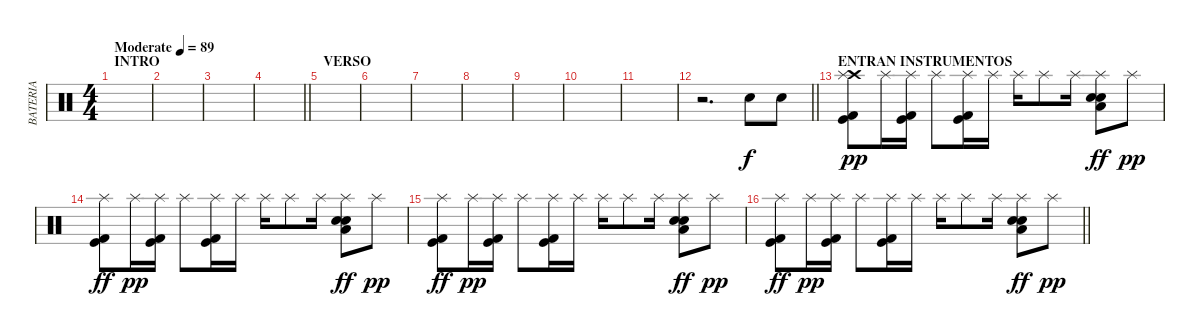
\track ("BATERIA" "BATERIA") {instrument percussion}
\staff {score}
\articulation defaults
\ts (4 4)
\section ("" "INTRO")
\tempo (89 "Moderate")
\clef neutral
\ks c
|
|
|
\barLineRight lightlight
|
\section ("" "VERSO")
|
|
|
|
|
|
|
\barLineRight lightlight
r.2{d} "Snare (hit) 2".8 "Snare (hit) 2".8 |
\section ("" "ENTRAN INSTRUMENTOS")
("Crash high (hit)" "Splash (hit)" "Kick (hit)" "Kick (hit) 2").8{dy pp} "Splash (hit)".16 ("Splash (hit)" "Kick (hit)" "Kick (hit) 2").16 "Splash (hit)".8 ("Splash (hit)" "Kick (hit)" "Kick (hit) 2").16 "Splash (hit)".16 "Splash (hit)".16 "Splash (hit)".8 "Splash (hit)".16 ("Splash (hit)" "Snare (hit) 2" "Snare (hit) 2" "Low Floor Tom (hit)").8{dy ff} "Splash (hit)".8{dy pp} |
("Splash (hit)" "Kick (hit)" "Kick (hit) 2").8{dy ff} "Splash (hit)".16{dy pp} ("Splash (hit)" "Kick (hit)" "Kick (hit) 2").16 "Splash (hit)".8 ("Splash (hit)" "Kick (hit)" "Kick (hit) 2").16 "Splash (hit)".16 "Splash (hit)".16 "Splash (hit)".8 "Splash (hit)".16 ("Splash (hit)" "Snare (hit) 2" "Snare (hit) 2" "Low Floor Tom (hit)").8{dy ff} "Splash (hit)".8{dy pp} |
("Splash (hit)" "Kick (hit)" "Kick (hit) 2").8{dy ff} "Splash (hit)".16{dy pp} ("Splash (hit)" "Kick (hit)" "Kick (hit) 2").16 "Splash (hit)".8 ("Splash (hit)" "Kick (hit)" "Kick (hit) 2").16 "Splash (hit)".16 "Splash (hit)".16 "Splash (hit)".8 "Splash (hit)".16 ("Splash (hit)" "Snare (hit) 2" "Snare (hit) 2" "Low Floor Tom (hit)").8{dy ff} "Splash (hit)".8{dy pp} |
\barLineRight lightlight
("Splash (hit)" "Kick (hit)" "Kick (hit) 2").8{dy ff} "Splash (hit)".16{dy pp} ("Splash (hit)" "Kick (hit)" "Kick (hit) 2").16 "Splash (hit)".8 ("Splash (hit)" "Kick (hit)" "Kick (hit) 2").16 "Splash (hit)".16 "Splash (hit)".16 "Splash (hit)".8 "Splash (hit)".16 ("Splash (hit)" "Snare (hit) 2" "Snare (hit) 2" "Low Floor Tom (hit)").8{dy ff} "Splash (hit)".8{dy pp}
